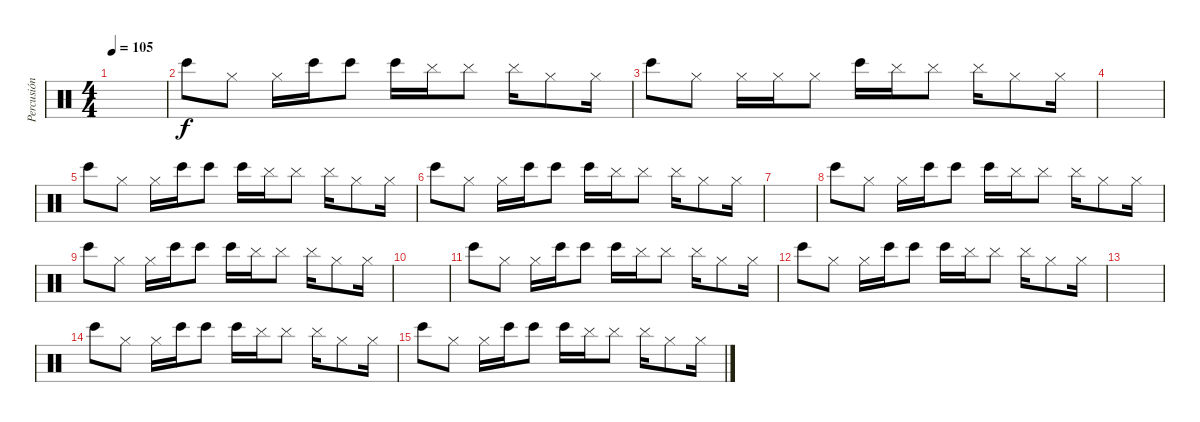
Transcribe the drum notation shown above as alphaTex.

\track ("Percusión" "Percusión") {instrument percussion}
\staff {score}
\articulation defaults
\ts (4 4)
\tempo 105
\clef neutral
\ks c
|
"Bongo High (hit)".8 "Hi-Hat (closed)".8 "Hi-Hat (closed)".16 "Bongo High (hit)".16 "Bongo High (hit)".8 "Bongo High (hit)".16 "Cymbal (hit)".16 "Cymbal (hit)".8 "Cymbal (hit)".16 "Hi-Hat (closed)".8 "Hi-Hat (closed)".16 |
"Bongo High (hit)".8 "Hi-Hat (closed)".8 "Hi-Hat (closed)".16 "Hi-Hat (closed)".16 "Hi-Hat (closed)".8 "Bongo High (hit)".16 "Cymbal (hit)".16 "Cymbal (hit)".8 "Cymbal (hit)".16 "Hi-Hat (closed)".8 "Hi-Hat (closed)".16 |
|
"Bongo High (hit)".8 "Hi-Hat (closed)".8 "Hi-Hat (closed)".16 "Bongo High (hit)".16 "Bongo High (hit)".8 "Bongo High (hit)".16 "Cymbal (hit)".16 "Cymbal (hit)".8 "Cymbal (hit)".16 "Hi-Hat (closed)".8 "Hi-Hat (closed)".16 |
"Bongo High (hit)".8 "Hi-Hat (closed)".8 "Hi-Hat (closed)".16 "Bongo High (hit)".16 "Bongo High (hit)".8 "Bongo High (hit)".16 "Cymbal (hit)".16 "Cymbal (hit)".8 "Cymbal (hit)".16 "Hi-Hat (closed)".8 "Hi-Hat (closed)".16 |
|
"Bongo High (hit)".8 "Hi-Hat (closed)".8 "Hi-Hat (closed)".16 "Bongo High (hit)".16 "Bongo High (hit)".8 "Bongo High (hit)".16 "Cymbal (hit)".16 "Cymbal (hit)".8 "Cymbal (hit)".16 "Hi-Hat (closed)".8 "Hi-Hat (closed)".16 |
"Bongo High (hit)".8 "Hi-Hat (closed)".8 "Hi-Hat (closed)".16 "Bongo High (hit)".16 "Bongo High (hit)".8 "Bongo High (hit)".16 "Cymbal (hit)".16 "Cymbal (hit)".8 "Cymbal (hit)".16 "Hi-Hat (closed)".8 "Hi-Hat (closed)".16 |
|
"Bongo High (hit)".8 "Hi-Hat (closed)".8 "Hi-Hat (closed)".16 "Bongo High (hit)".16 "Bongo High (hit)".8 "Bongo High (hit)".16 "Cymbal (hit)".16 "Cymbal (hit)".8 "Cymbal (hit)".16 "Hi-Hat (closed)".8 "Hi-Hat (closed)".16 |
"Bongo High (hit)".8 "Hi-Hat (closed)".8 "Hi-Hat (closed)".16 "Bongo High (hit)".16 "Bongo High (hit)".8 "Bongo High (hit)".16 "Cymbal (hit)".16 "Cymbal (hit)".8 "Cymbal (hit)".16 "Hi-Hat (closed)".8 "Hi-Hat (closed)".16 |
|
"Bongo High (hit)".8 "Hi-Hat (closed)".8 "Hi-Hat (closed)".16 "Bongo High (hit)".16 "Bongo High (hit)".8 "Bongo High (hit)".16 "Cymbal (hit)".16 "Cymbal (hit)".8 "Cymbal (hit)".16 "Hi-Hat (closed)".8 "Hi-Hat (closed)".16 |
"Bongo High (hit)".8 "Hi-Hat (closed)".8 "Hi-Hat (closed)".16 "Bongo High (hit)".16 "Bongo High (hit)".8 "Bongo High (hit)".16 "Cymbal (hit)".16 "Cymbal (hit)".8 "Cymbal (hit)".16 "Hi-Hat (closed)".8 "Hi-Hat (closed)".16
